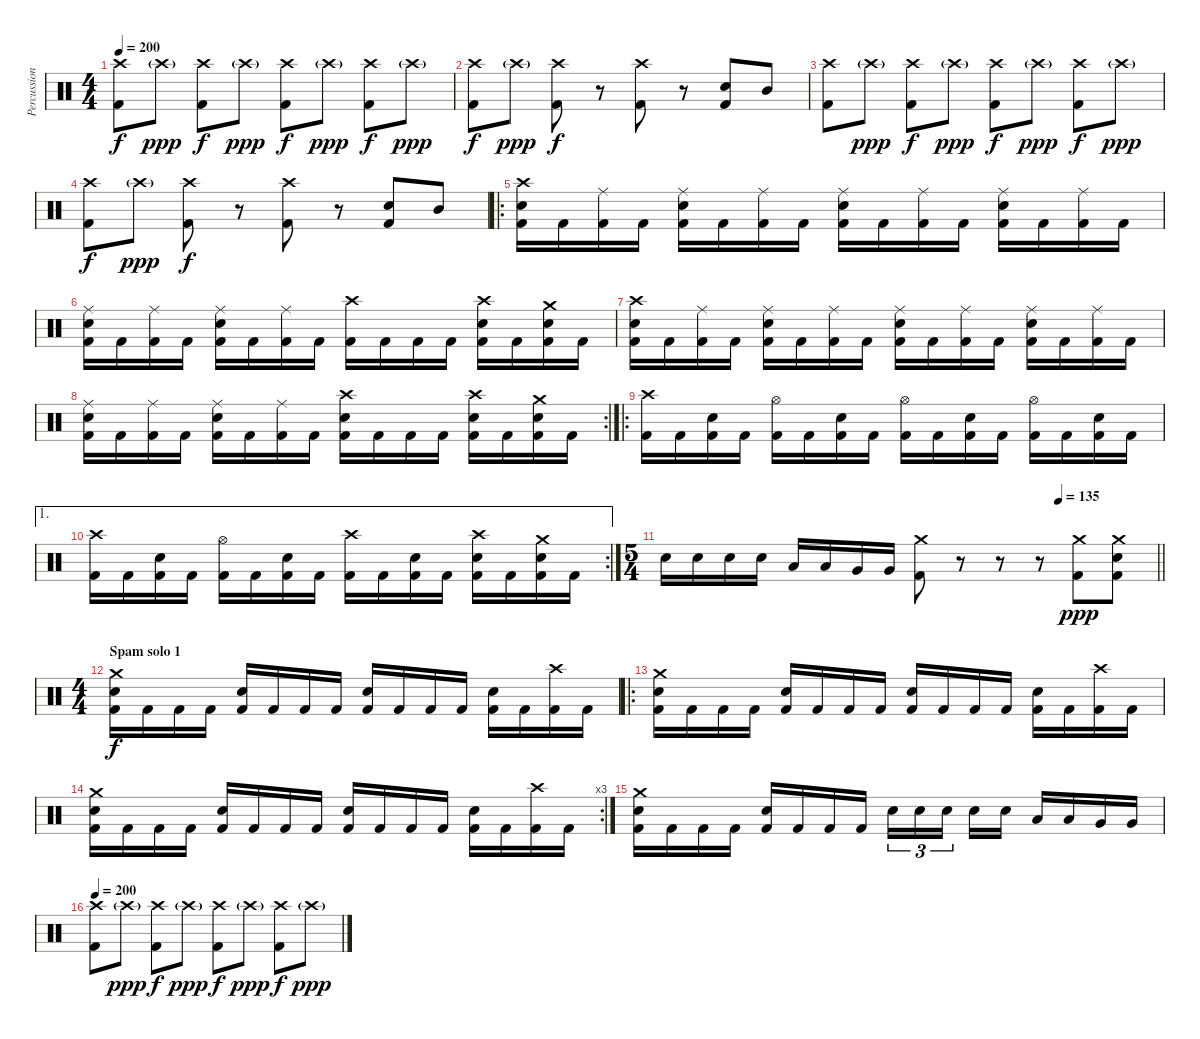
\track ("Percussion" "Percussion") {instrument percussion}
\staff {score}
\articulation defaults
\ts (4 4)
\tempo 200
\clef neutral
\ks c
("Crash high (hit)" "Kick (hit) 2").8{dy f} "Crash high (hit)"{g}.8{dy ppp} ("Crash high (hit)" "Kick (hit) 2").8{dy f} "Crash high (hit)"{g}.8{dy ppp} ("Crash high (hit)" "Kick (hit) 2").8{dy f} "Crash high (hit)"{g}.8{dy ppp} ("Crash high (hit)" "Kick (hit) 2").8{dy f} "Crash high (hit)"{g}.8{dy ppp} |
("Crash high (hit)" "Kick (hit) 2").8{dy f} "Crash high (hit)"{g}.8{dy ppp} ("Crash high (hit)" "Kick (hit) 2").8{dy f} r.8 ("Crash high (hit)" "Kick (hit) 2").8 r.8 ("Snare (hit) 2" "Kick (hit) 2").8 "Mid Tom (hit)".8 |
("Crash high (hit)" "Kick (hit) 2").8 "Crash high (hit)"{g}.8{dy ppp} ("Crash high (hit)" "Kick (hit) 2").8{dy f} "Crash high (hit)"{g}.8{dy ppp} ("Crash high (hit)" "Kick (hit) 2").8{dy f} "Crash high (hit)"{g}.8{dy ppp} ("Crash high (hit)" "Kick (hit) 2").8{dy f} "Crash high (hit)"{g}.8{dy ppp} |
("Crash high (hit)" "Kick (hit) 2").8{dy f} "Crash high (hit)"{g}.8{dy ppp} ("Crash high (hit)" "Kick (hit) 2").8{dy f} r.8 ("Crash high (hit)" "Kick (hit) 2").8 r.8 ("Snare (hit) 2" "Kick (hit) 2").8 "Mid Tom (hit)".8 |
\ro
("Crash high (hit)" "Electric Snare (hit)" "Kick (hit) 2").16 "Kick (hit) 2".16 ("Ride (middle)" "Kick (hit) 2").16 "Kick (hit) 2".16 ("Ride (middle)" "Electric Snare (hit)" "Kick (hit) 2").16 "Kick (hit) 2".16 ("Ride (middle)" "Kick (hit) 2").16 "Kick (hit) 2".16 ("Ride (middle)" "Electric Snare (hit)" "Kick (hit) 2").16 "Kick (hit) 2".16 ("Ride (middle)" "Kick (hit) 2").16 "Kick (hit) 2".16 ("Ride (middle)" "Electric Snare (hit)" "Kick (hit) 2").16 "Kick (hit) 2".16 ("Ride (middle)" "Kick (hit) 2").16 "Kick (hit) 2".16 |
("Ride (middle)" "Electric Snare (hit)" "Kick (hit) 2").16 "Kick (hit) 2".16 ("Ride (middle)" "Kick (hit) 2").16 "Kick (hit) 2".16 ("Ride (middle)" "Electric Snare (hit)" "Kick (hit) 2").16 "Kick (hit) 2".16 ("Ride (middle)" "Kick (hit) 2").16 "Kick (hit) 2".16 ("Crash high (hit)" "Kick (hit) 2").16 "Kick (hit) 2".16 "Kick (hit) 2".16 "Kick (hit) 2".16 ("Crash high (hit)" "Electric Snare (hit)" "Kick (hit) 2").16 "Kick (hit) 2".16 ("Crash medium (hit)" "Electric Snare (hit)" "Kick (hit) 2").16 "Kick (hit) 2".16 |
("Crash high (hit)" "Electric Snare (hit)" "Kick (hit) 2").16 "Kick (hit) 2".16 ("Ride (middle)" "Kick (hit) 2").16 "Kick (hit) 2".16 ("Ride (middle)" "Electric Snare (hit)" "Kick (hit) 2").16 "Kick (hit) 2".16 ("Ride (middle)" "Kick (hit) 2").16 "Kick (hit) 2".16 ("Ride (middle)" "Electric Snare (hit)" "Kick (hit) 2").16 "Kick (hit) 2".16 ("Ride (middle)" "Kick (hit) 2").16 "Kick (hit) 2".16 ("Ride (middle)" "Electric Snare (hit)" "Kick (hit) 2").16 "Kick (hit) 2".16 ("Ride (middle)" "Kick (hit) 2").16 "Kick (hit) 2".16 |
\rc 2
("Ride (middle)" "Electric Snare (hit)" "Kick (hit) 2").16 "Kick (hit) 2".16 ("Ride (middle)" "Kick (hit) 2").16 "Kick (hit) 2".16 ("Ride (middle)" "Electric Snare (hit)" "Kick (hit) 2").16 "Kick (hit) 2".16 ("Ride (middle)" "Kick (hit) 2").16 "Kick (hit) 2".16 ("Crash high (hit)" "Electric Snare (hit)" "Kick (hit) 2").16 "Kick (hit) 2".16 "Kick (hit) 2".16 "Kick (hit) 2".16 ("Crash high (hit)" "Electric Snare (hit)" "Kick (hit) 2").16 "Kick (hit) 2".16 ("Crash medium (hit)" "Electric Snare (hit)" "Kick (hit) 2").16 "Kick (hit) 2".16 |
\ro
("Crash high (hit)" "Kick (hit) 2").16 "Kick (hit) 2".16 ("Electric Snare (hit)" "Kick (hit) 2").16 "Kick (hit) 2".16 ("Hi-Hat (open)" "Kick (hit) 2").16 "Kick (hit) 2".16 ("Electric Snare (hit)" "Kick (hit) 2").16 "Kick (hit) 2".16 ("Hi-Hat (open)" "Kick (hit) 2").16 "Kick (hit) 2".16 ("Electric Snare (hit)" "Kick (hit) 2").16 "Kick (hit) 2".16 ("Hi-Hat (open)" "Kick (hit) 2").16 "Kick (hit) 2".16 ("Electric Snare (hit)" "Kick (hit) 2").16 "Kick (hit) 2".16 |
\ae 1
\rc 2
("Crash high (hit)" "Kick (hit) 2").16 "Kick (hit) 2".16 ("Electric Snare (hit)" "Kick (hit) 2").16 "Kick (hit) 2".16 ("Hi-Hat (open)" "Kick (hit) 2").16 "Kick (hit) 2".16 ("Electric Snare (hit)" "Kick (hit) 2").16 "Kick (hit) 2".16 ("Crash high (hit)" "Kick (hit) 2").16 "Kick (hit) 2".16 ("Electric Snare (hit)" "Kick (hit) 2").16 "Kick (hit) 2".16 ("Crash high (hit)" "Electric Snare (hit)" "Kick (hit) 2").16 "Kick (hit) 2".16 ("Crash medium (hit)" "Electric Snare (hit)" "Kick (hit) 2").16 "Kick (hit) 2".16 |
\ts (5 4)
\tempo (135 0.8)
\barLineRight lightlight "Snare (hit) 2".16 "Snare (hit) 2".16 "Snare (hit) 2".16 "Snare (hit) 2".16 "Low Tom (hit)".16 "Low Tom (hit)".16 "Very Low Tom (hit)".16 "Very Low Tom (hit)".16
("Crash medium (hit)" "Kick (hit) 2").8 r.8 r.8 r.8 ("Crash medium (hit)" "Kick (hit) 2").8{dy ppp} ("Crash medium (hit)" "Snare (hit) 2" "Kick (hit) 2").8 |
\ts (4 4)
\section ("" "Spam solo 1")
("Crash medium (hit)" "Electric Snare (hit)" "Kick (hit) 2").16{dy f} "Kick (hit) 2".16 "Kick (hit) 2".16 "Kick (hit) 2".16 ("Electric Snare (hit)" "Kick (hit) 2").16 "Kick (hit) 2".16 "Kick (hit) 2".16 "Kick (hit) 2".16 ("Electric Snare (hit)" "Kick (hit) 2").16 "Kick (hit) 2".16 "Kick (hit) 2".16 "Kick (hit) 2".16 ("Electric Snare (hit)" "Kick (hit) 2").16 "Kick (hit) 2".16 ("Crash high (hit)" "Kick (hit) 2").16 "Kick (hit) 2".16 |
\ro
("Crash medium (hit)" "Electric Snare (hit)" "Kick (hit) 2").16 "Kick (hit) 2".16 "Kick (hit) 2".16 "Kick (hit) 2".16 ("Electric Snare (hit)" "Kick (hit) 2").16 "Kick (hit) 2".16 "Kick (hit) 2".16 "Kick (hit) 2".16 ("Electric Snare (hit)" "Kick (hit) 2").16 "Kick (hit) 2".16 "Kick (hit) 2".16 "Kick (hit) 2".16 ("Electric Snare (hit)" "Kick (hit) 2").16 "Kick (hit) 2".16 ("Crash high (hit)" "Kick (hit) 2").16 "Kick (hit) 2".16 |
\rc 3
("Crash medium (hit)" "Electric Snare (hit)" "Kick (hit) 2").16 "Kick (hit) 2".16 "Kick (hit) 2".16 "Kick (hit) 2".16 ("Electric Snare (hit)" "Kick (hit) 2").16 "Kick (hit) 2".16 "Kick (hit) 2".16 "Kick (hit) 2".16 ("Electric Snare (hit)" "Kick (hit) 2").16 "Kick (hit) 2".16 "Kick (hit) 2".16 "Kick (hit) 2".16 ("Electric Snare (hit)" "Kick (hit) 2").16 "Kick (hit) 2".16 ("Crash high (hit)" "Kick (hit) 2").16 "Kick (hit) 2".16 |
("Crash medium (hit)" "Electric Snare (hit)" "Kick (hit) 2").16 "Kick (hit) 2".16 "Kick (hit) 2".16 "Kick (hit) 2".16 ("Electric Snare (hit)" "Kick (hit) 2").16 "Kick (hit) 2".16 "Kick (hit) 2".16 "Kick (hit) 2".16 "Snare (hit) 2".16{tu (3 2)} "Snare (hit) 2".16{tu (3 2)} "Snare (hit) 2".16{tu (3 2)} "Snare (hit) 2".16 "Snare (hit) 2".16 "Low Tom (hit)".16 "Low Tom (hit)".16 "Very Low Tom (hit)".16 "Very Low Tom (hit)".16 |
\tempo 200
("Crash high (hit)" "Kick (hit) 2").8 "Crash high (hit)"{g}.8{dy ppp} ("Crash high (hit)" "Kick (hit) 2").8{dy f} "Crash high (hit)"{g}.8{dy ppp} ("Crash high (hit)" "Kick (hit) 2").8{dy f} "Crash high (hit)"{g}.8{dy ppp} ("Crash high (hit)" "Kick (hit) 2").8{dy f} "Crash high (hit)"{g}.8{dy ppp}
